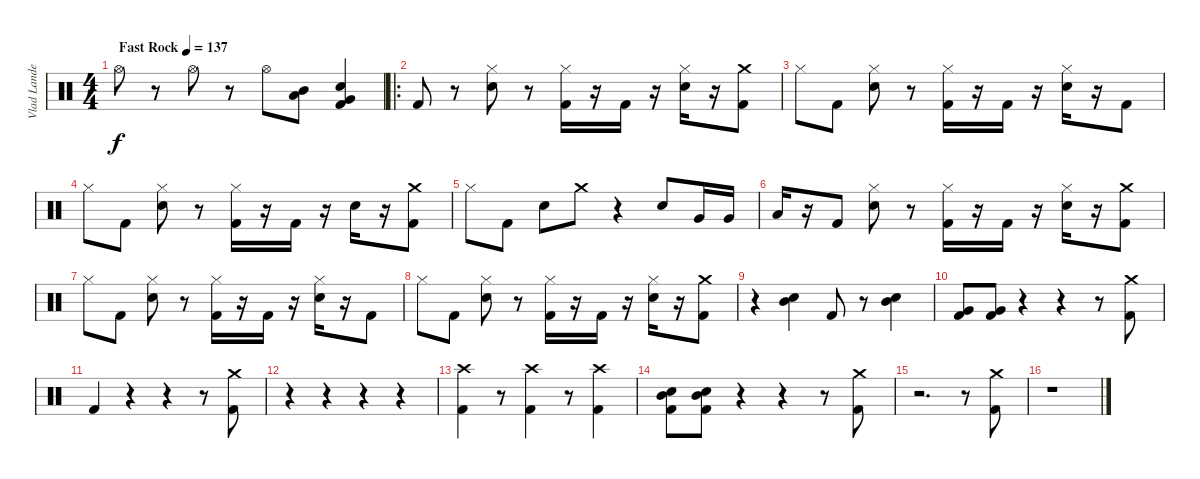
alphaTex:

\track ("Vlad Landeros" "Vlad Lande") {instrument percussion}
\staff {score}
\articulation defaults
\ts (4 4)
\tempo (137 "Fast Rock")
\clef neutral
\ks c "Hi-Hat (open)".8{dy f}
r.8 "Hi-Hat (open)".8 r.8 "Hi-Hat (open)".8 ("Low Floor Tom (hit)" "Mid Tom (hit)").8 ("Very Low Tom (hit)" "Kick (hit) 2" "Electric Snare (hit)").4 |
\ro "Kick (hit) 2".8
r.8 ("Electric Snare (hit)" "Hi-Hat (closed)").8 r.8 ("Kick (hit) 2" "Hi-Hat (closed)").16 r.16 "Kick (hit) 2".16 r.16 ("Electric Snare (hit)" "Hi-Hat (closed)").16 r.16 ("Kick (hit) 2" "Crash medium (hit)").8 |
"Hi-Hat (closed)".8 "Kick (hit) 2".8 ("Electric Snare (hit)" "Hi-Hat (closed)").8 r.8 ("Kick (hit) 2" "Hi-Hat (closed)").16 r.16 "Kick (hit) 2".16 r.16 ("Electric Snare (hit)" "Hi-Hat (closed)").16 r.16 "Kick (hit) 2".8 |
"Hi-Hat (closed)".8 "Kick (hit) 2".8 ("Electric Snare (hit)" "Hi-Hat (closed)").8 r.8 ("Kick (hit) 2" "Hi-Hat (closed)").16 r.16 "Kick (hit) 2".16 r.16 "Electric Snare (hit)".16 r.16 ("Kick (hit) 2" "Crash medium (hit)").8 |
"Hi-Hat (closed)".8 "Kick (hit) 2".8 "Electric Snare (hit)".8 "Crash medium (hit)".8 r.4 "Electric Snare (hit)".8 "Very Low Tom (hit)".16 "Very Low Tom (hit)".16 |
"Low Tom (hit)".16 r.16 "Kick (hit) 2".8 ("Electric Snare (hit)" "Hi-Hat (closed)").8 r.8 ("Kick (hit) 2" "Hi-Hat (closed)").16 r.16 "Kick (hit) 2".16 r.16 ("Electric Snare (hit)" "Hi-Hat (closed)").16 r.16 ("Kick (hit) 2" "Crash medium (hit)").8 |
"Hi-Hat (closed)".8 "Kick (hit) 2".8 ("Electric Snare (hit)" "Hi-Hat (closed)").8 r.8 ("Kick (hit) 2" "Hi-Hat (closed)").16 r.16 "Kick (hit) 2".16 r.16 ("Electric Snare (hit)" "Hi-Hat (closed)").16 r.16 "Kick (hit) 2".8 |
"Hi-Hat (closed)".8 "Kick (hit) 2".8 ("Electric Snare (hit)" "Hi-Hat (closed)").8 r.8 ("Kick (hit) 2" "Hi-Hat (closed)").16 r.16 "Kick (hit) 2".16 r.16 ("Electric Snare (hit)" "Hi-Hat (closed)").16 r.16 ("Kick (hit) 2" "Crash medium (hit)").8 |
r.4 ("Mid Tom (hit)" "Electric Snare (hit)").4 "Kick (hit) 2".8 r.8 ("Mid Tom (hit)" "Electric Snare (hit)").4 |
("Very Low Tom (hit)" "Kick (hit) 2").8 ("Very Low Tom (hit)" "Kick (hit) 2").8 r.4 r.4 r.8 ("Crash medium (hit)" "Kick (hit) 2").8 |
"Kick (hit) 2".4 r.4 r.4 r.8 ("Crash medium (hit)" "Kick (hit) 2").8 |
r.4 r.4 r.4 r.4 |
("Crash high (hit)" "Kick (hit) 2").4 r.8 ("Crash high (hit)" "Kick (hit) 2").4 r.8 ("Crash high (hit)" "Kick (hit) 2").4 |
("Electric Snare (hit)" "Mid Tom (hit)" "Kick (hit) 2").8 ("Electric Snare (hit)" "Mid Tom (hit)" "Kick (hit) 2").8 r.4 r.4 r.8 ("Kick (hit) 2" "Crash medium (hit)").8 |
r.2{d} r.8 ("Kick (hit) 2" "Crash medium (hit)").8 |
r.1
